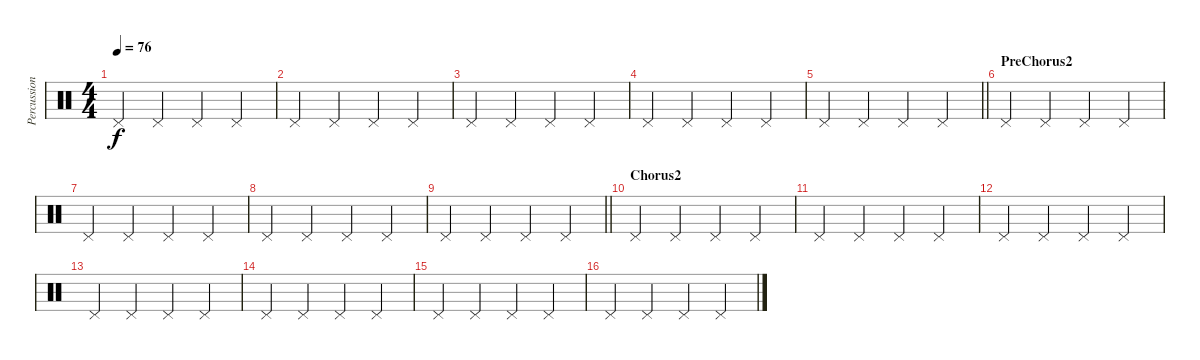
\track ("Percussion" "Percussion") {instrument percussion}
\staff {score}
\articulation defaults
\ts (4 4)
\tempo 76
\clef neutral
\ks c "Pedal Hi-Hat (hit)".4{dy f} "Pedal Hi-Hat (hit)".4 "Pedal Hi-Hat (hit)".4 "Pedal Hi-Hat (hit)".4
|
"Pedal Hi-Hat (hit)".4{beam merge} "Pedal Hi-Hat (hit)".4 "Pedal Hi-Hat (hit)".4 "Pedal Hi-Hat (hit)".4 |
"Pedal Hi-Hat (hit)".4{beam merge} "Pedal Hi-Hat (hit)".4 "Pedal Hi-Hat (hit)".4 "Pedal Hi-Hat (hit)".4 |
"Pedal Hi-Hat (hit)".4{beam merge} "Pedal Hi-Hat (hit)".4{beam merge} "Pedal Hi-Hat (hit)".4 "Pedal Hi-Hat (hit)".4 |
\barLineRight lightlight "Pedal Hi-Hat (hit)".4 "Pedal Hi-Hat (hit)".4 "Pedal Hi-Hat (hit)".4 "Pedal Hi-Hat (hit)".4
|
\section ("" "PreChorus2")
"Pedal Hi-Hat (hit)".4{beam merge} "Pedal Hi-Hat (hit)".4 "Pedal Hi-Hat (hit)".4 "Pedal Hi-Hat (hit)".4 |
"Pedal Hi-Hat (hit)".4{beam merge} "Pedal Hi-Hat (hit)".4 "Pedal Hi-Hat (hit)".4 "Pedal Hi-Hat (hit)".4 |
"Pedal Hi-Hat (hit)".4{beam merge} "Pedal Hi-Hat (hit)".4{beam merge} "Pedal Hi-Hat (hit)".4 "Pedal Hi-Hat (hit)".4 |
\barLineRight lightlight "Pedal Hi-Hat (hit)".4 "Pedal Hi-Hat (hit)".4 "Pedal Hi-Hat (hit)".4 "Pedal Hi-Hat (hit)".4
|
\section ("" "Chorus2")
"Pedal Hi-Hat (hit)".4{beam merge} "Pedal Hi-Hat (hit)".4 "Pedal Hi-Hat (hit)".4 "Pedal Hi-Hat (hit)".4 |
"Pedal Hi-Hat (hit)".4{beam merge} "Pedal Hi-Hat (hit)".4 "Pedal Hi-Hat (hit)".4 "Pedal Hi-Hat (hit)".4 |
"Pedal Hi-Hat (hit)".4{beam merge} "Pedal Hi-Hat (hit)".4{beam merge} "Pedal Hi-Hat (hit)".4 "Pedal Hi-Hat (hit)".4 |
"Pedal Hi-Hat (hit)".4 "Pedal Hi-Hat (hit)".4 "Pedal Hi-Hat (hit)".4 "Pedal Hi-Hat (hit)".4 |
"Pedal Hi-Hat (hit)".4{beam merge} "Pedal Hi-Hat (hit)".4{beam merge} "Pedal Hi-Hat (hit)".4 "Pedal Hi-Hat (hit)".4 |
"Pedal Hi-Hat (hit)".4 "Pedal Hi-Hat (hit)".4 "Pedal Hi-Hat (hit)".4 "Pedal Hi-Hat (hit)".4 |
"Pedal Hi-Hat (hit)".4{beam merge} "Pedal Hi-Hat (hit)".4{beam merge} "Pedal Hi-Hat (hit)".4 "Pedal Hi-Hat (hit)".4
